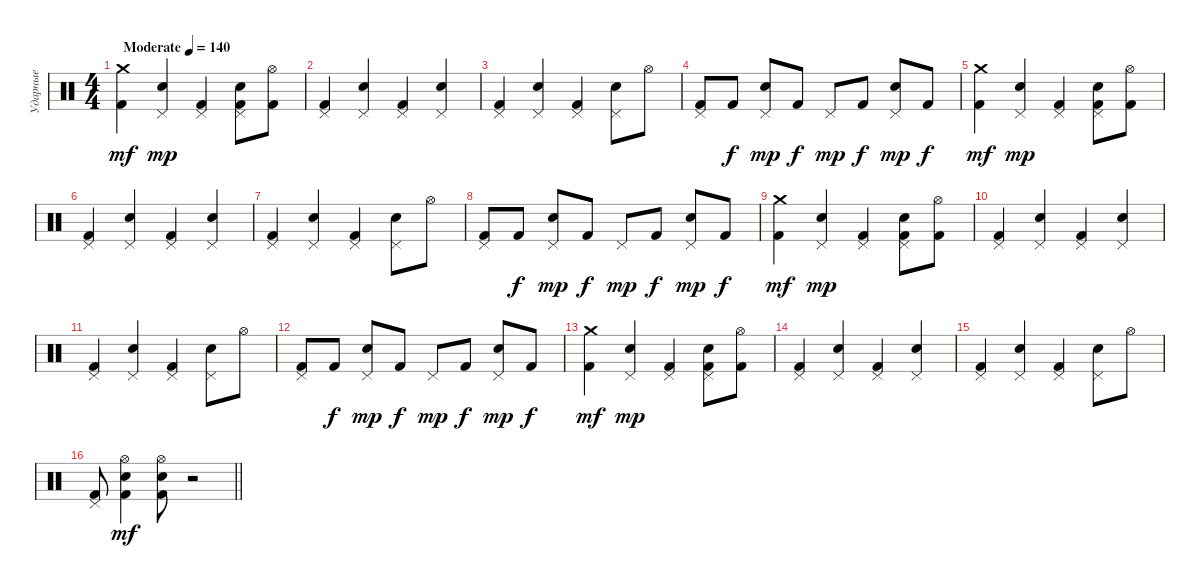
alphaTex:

\track ("Ударные" "Ударные") {instrument percussion}
\staff {score}
\articulation defaults
\ts (4 4)
\tempo (140 "Moderate")
\clef neutral
\ks c
("Kick (hit) 2" "Crash medium (hit)").4{dy mf} ("Snare (hit) 2" "Pedal Hi-Hat (hit)").4{dy mp} ("Kick (hit) 2" "Pedal Hi-Hat (hit)").4 ("Kick (hit) 2" "Snare (hit) 2" "Pedal Hi-Hat (hit)").8 ("Kick (hit) 2" "Hi-Hat (open)").8 |
("Kick (hit) 2" "Pedal Hi-Hat (hit)").4 ("Snare (hit) 2" "Pedal Hi-Hat (hit)").4 ("Kick (hit) 2" "Pedal Hi-Hat (hit)").4 ("Snare (hit) 2" "Pedal Hi-Hat (hit)").4 |
("Kick (hit) 2" "Pedal Hi-Hat (hit)").4 ("Snare (hit) 2" "Pedal Hi-Hat (hit)").4 ("Kick (hit) 2" "Pedal Hi-Hat (hit)").4 ("Snare (hit) 2" "Pedal Hi-Hat (hit)").8 "Hi-Hat (open)".8 |
("Kick (hit) 2" "Pedal Hi-Hat (hit)").8 "Kick (hit) 2".8{dy f} ("Snare (hit) 2" "Pedal Hi-Hat (hit)").8{dy mp} "Kick (hit) 2".8{dy f} "Pedal Hi-Hat (hit)".8{dy mp} "Kick (hit) 2".8{dy f} ("Snare (hit) 2" "Pedal Hi-Hat (hit)").8{dy mp} "Kick (hit) 2".8{dy f} |
("Kick (hit) 2" "Crash medium (hit)").4{dy mf} ("Snare (hit) 2" "Pedal Hi-Hat (hit)").4{dy mp} ("Kick (hit) 2" "Pedal Hi-Hat (hit)").4 ("Kick (hit) 2" "Snare (hit) 2" "Pedal Hi-Hat (hit)").8 ("Kick (hit) 2" "Hi-Hat (open)").8 |
("Kick (hit) 2" "Pedal Hi-Hat (hit)").4 ("Snare (hit) 2" "Pedal Hi-Hat (hit)").4 ("Kick (hit) 2" "Pedal Hi-Hat (hit)").4 ("Snare (hit) 2" "Pedal Hi-Hat (hit)").4 |
("Kick (hit) 2" "Pedal Hi-Hat (hit)").4 ("Snare (hit) 2" "Pedal Hi-Hat (hit)").4 ("Kick (hit) 2" "Pedal Hi-Hat (hit)").4 ("Snare (hit) 2" "Pedal Hi-Hat (hit)").8 "Hi-Hat (open)".8 |
("Kick (hit) 2" "Pedal Hi-Hat (hit)").8 "Kick (hit) 2".8{dy f} ("Snare (hit) 2" "Pedal Hi-Hat (hit)").8{dy mp} "Kick (hit) 2".8{dy f} "Pedal Hi-Hat (hit)".8{dy mp} "Kick (hit) 2".8{dy f} ("Snare (hit) 2" "Pedal Hi-Hat (hit)").8{dy mp} "Kick (hit) 2".8{dy f} |
("Kick (hit) 2" "Crash medium (hit)").4{dy mf} ("Snare (hit) 2" "Pedal Hi-Hat (hit)").4{dy mp} ("Kick (hit) 2" "Pedal Hi-Hat (hit)").4 ("Kick (hit) 2" "Snare (hit) 2" "Pedal Hi-Hat (hit)").8 ("Kick (hit) 2" "Hi-Hat (open)").8 |
("Kick (hit) 2" "Pedal Hi-Hat (hit)").4 ("Snare (hit) 2" "Pedal Hi-Hat (hit)").4 ("Kick (hit) 2" "Pedal Hi-Hat (hit)").4 ("Snare (hit) 2" "Pedal Hi-Hat (hit)").4 |
("Kick (hit) 2" "Pedal Hi-Hat (hit)").4 ("Snare (hit) 2" "Pedal Hi-Hat (hit)").4 ("Kick (hit) 2" "Pedal Hi-Hat (hit)").4 ("Snare (hit) 2" "Pedal Hi-Hat (hit)").8 "Hi-Hat (open)".8 |
("Kick (hit) 2" "Pedal Hi-Hat (hit)").8 "Kick (hit) 2".8{dy f} ("Snare (hit) 2" "Pedal Hi-Hat (hit)").8{dy mp} "Kick (hit) 2".8{dy f} "Pedal Hi-Hat (hit)".8{dy mp} "Kick (hit) 2".8{dy f} ("Snare (hit) 2" "Pedal Hi-Hat (hit)").8{dy mp} "Kick (hit) 2".8{dy f} |
("Kick (hit) 2" "Crash medium (hit)").4{dy mf} ("Snare (hit) 2" "Pedal Hi-Hat (hit)").4{dy mp} ("Kick (hit) 2" "Pedal Hi-Hat (hit)").4 ("Kick (hit) 2" "Snare (hit) 2" "Pedal Hi-Hat (hit)").8 ("Kick (hit) 2" "Hi-Hat (open)").8 |
("Kick (hit) 2" "Pedal Hi-Hat (hit)").4 ("Snare (hit) 2" "Pedal Hi-Hat (hit)").4 ("Kick (hit) 2" "Pedal Hi-Hat (hit)").4 ("Snare (hit) 2" "Pedal Hi-Hat (hit)").4 |
("Kick (hit) 2" "Pedal Hi-Hat (hit)").4 ("Snare (hit) 2" "Pedal Hi-Hat (hit)").4 ("Kick (hit) 2" "Pedal Hi-Hat (hit)").4 ("Snare (hit) 2" "Pedal Hi-Hat (hit)").8 "Hi-Hat (open)".8 |
\barLineRight lightlight
("Kick (hit) 2" "Pedal Hi-Hat (hit)").8 ("Kick (hit) 2" "Snare (hit) 2" "Hi-Hat (open)").4{dy mf} ("Kick (hit) 2" "Snare (hit) 2" "Hi-Hat (open)").8 r.2
